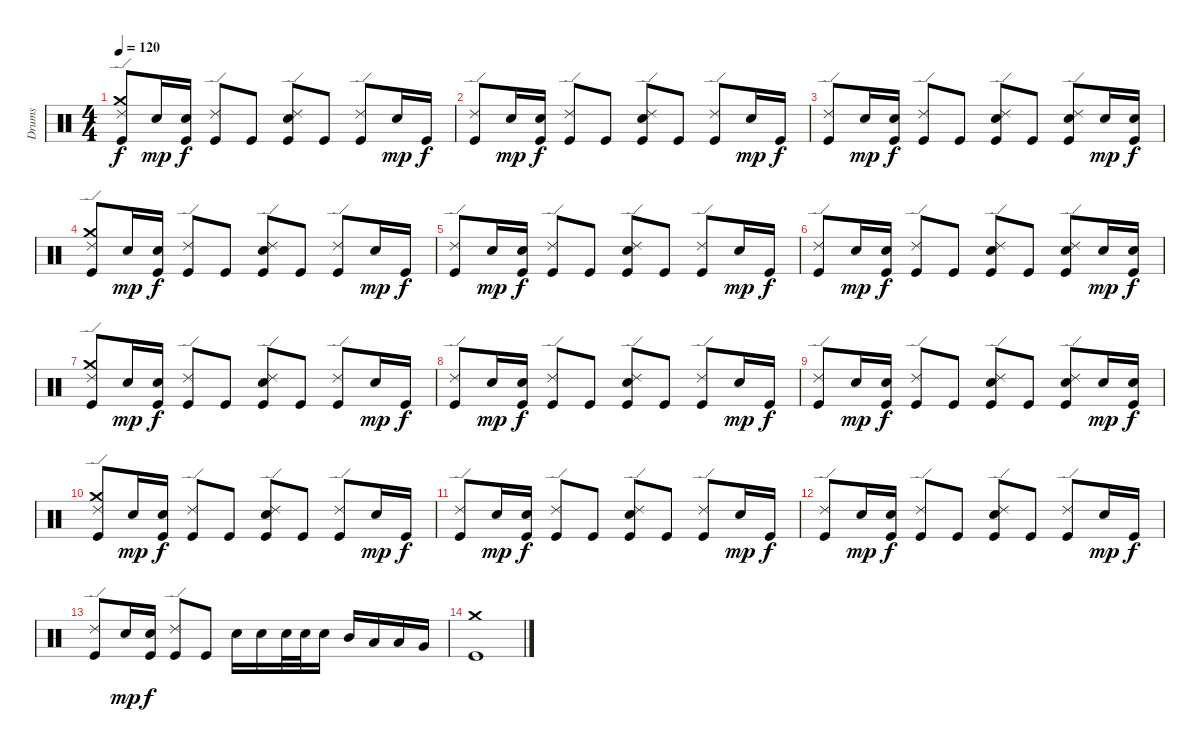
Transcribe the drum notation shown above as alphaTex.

\track ("Drums" "Drums") {instrument percussion}
\staff {score}
\articulation defaults
\ts (4 4)
\tempo 120
\clef neutral
\ks c
("Kick (hit)" "Crash medium (hit)" "Ride (edge) 2").8{dy f} "Electric Snare (hit)".16{dy mp} ("Kick (hit)" "Electric Snare (hit)").16{dy f} ("Kick (hit)" "Ride (edge) 2").8 "Kick (hit)".8 ("Kick (hit)" "Electric Snare (hit)" "Ride (edge) 2").8 "Kick (hit)".8 ("Kick (hit)" "Ride (edge) 2").8 "Electric Snare (hit)".16{dy mp} "Kick (hit)".16{dy f} |
("Kick (hit)" "Ride (edge) 2").8 "Electric Snare (hit)".16{dy mp} ("Kick (hit)" "Electric Snare (hit)").16{dy f} ("Kick (hit)" "Ride (edge) 2").8 "Kick (hit)".8 ("Kick (hit)" "Electric Snare (hit)" "Ride (edge) 2").8 "Kick (hit)".8 ("Kick (hit)" "Ride (edge) 2").8 "Electric Snare (hit)".16{dy mp} "Kick (hit)".16{dy f} |
("Kick (hit)" "Ride (edge) 2").8 "Electric Snare (hit)".16{dy mp} ("Kick (hit)" "Electric Snare (hit)").16{dy f} ("Kick (hit)" "Ride (edge) 2").8 "Kick (hit)".8 ("Kick (hit)" "Electric Snare (hit)" "Ride (edge) 2").8 "Kick (hit)".8 ("Kick (hit)" "Electric Snare (hit)" "Ride (edge) 2").8 "Electric Snare (hit)".16{dy mp} ("Kick (hit)" "Electric Snare (hit)").16{dy f} |
("Kick (hit)" "Crash medium (hit)" "Ride (edge) 2").8 "Electric Snare (hit)".16{dy mp} ("Kick (hit)" "Electric Snare (hit)").16{dy f} ("Kick (hit)" "Ride (edge) 2").8 "Kick (hit)".8 ("Kick (hit)" "Electric Snare (hit)" "Ride (edge) 2").8 "Kick (hit)".8 ("Kick (hit)" "Ride (edge) 2").8 "Electric Snare (hit)".16{dy mp} "Kick (hit)".16{dy f} |
("Kick (hit)" "Ride (edge) 2").8 "Electric Snare (hit)".16{dy mp} ("Kick (hit)" "Electric Snare (hit)").16{dy f} ("Kick (hit)" "Ride (edge) 2").8 "Kick (hit)".8 ("Kick (hit)" "Electric Snare (hit)" "Ride (edge) 2").8 "Kick (hit)".8 ("Kick (hit)" "Ride (edge) 2").8 "Electric Snare (hit)".16{dy mp} "Kick (hit)".16{dy f} |
("Kick (hit)" "Ride (edge) 2").8 "Electric Snare (hit)".16{dy mp} ("Kick (hit)" "Electric Snare (hit)").16{dy f} ("Kick (hit)" "Ride (edge) 2").8 "Kick (hit)".8 ("Kick (hit)" "Electric Snare (hit)" "Ride (edge) 2").8 "Kick (hit)".8 ("Kick (hit)" "Electric Snare (hit)" "Ride (edge) 2").8 "Electric Snare (hit)".16{dy mp} ("Kick (hit)" "Electric Snare (hit)").16{dy f} |
("Kick (hit)" "Crash medium (hit)" "Ride (edge) 2").8 "Electric Snare (hit)".16{dy mp} ("Kick (hit)" "Electric Snare (hit)").16{dy f} ("Kick (hit)" "Ride (edge) 2").8 "Kick (hit)".8 ("Kick (hit)" "Electric Snare (hit)" "Ride (edge) 2").8 "Kick (hit)".8 ("Kick (hit)" "Ride (edge) 2").8 "Electric Snare (hit)".16{dy mp} "Kick (hit)".16{dy f} |
("Kick (hit)" "Ride (edge) 2").8 "Electric Snare (hit)".16{dy mp} ("Kick (hit)" "Electric Snare (hit)").16{dy f} ("Kick (hit)" "Ride (edge) 2").8 "Kick (hit)".8 ("Kick (hit)" "Electric Snare (hit)" "Ride (edge) 2").8 "Kick (hit)".8 ("Kick (hit)" "Ride (edge) 2").8 "Electric Snare (hit)".16{dy mp} "Kick (hit)".16{dy f} |
("Kick (hit)" "Ride (edge) 2").8 "Electric Snare (hit)".16{dy mp} ("Kick (hit)" "Electric Snare (hit)").16{dy f} ("Kick (hit)" "Ride (edge) 2").8 "Kick (hit)".8 ("Kick (hit)" "Electric Snare (hit)" "Ride (edge) 2").8 "Kick (hit)".8 ("Kick (hit)" "Electric Snare (hit)" "Ride (edge) 2").8 "Electric Snare (hit)".16{dy mp} ("Kick (hit)" "Electric Snare (hit)").16{dy f} |
("Kick (hit)" "Crash medium (hit)" "Ride (edge) 2").8 "Electric Snare (hit)".16{dy mp} ("Kick (hit)" "Electric Snare (hit)").16{dy f} ("Kick (hit)" "Ride (edge) 2").8 "Kick (hit)".8 ("Kick (hit)" "Electric Snare (hit)" "Ride (edge) 2").8 "Kick (hit)".8 ("Kick (hit)" "Ride (edge) 2").8 "Electric Snare (hit)".16{dy mp} "Kick (hit)".16{dy f} |
("Kick (hit)" "Ride (edge) 2").8 "Electric Snare (hit)".16{dy mp} ("Kick (hit)" "Electric Snare (hit)").16{dy f} ("Kick (hit)" "Ride (edge) 2").8 "Kick (hit)".8 ("Kick (hit)" "Electric Snare (hit)" "Ride (edge) 2").8 "Kick (hit)".8 ("Kick (hit)" "Ride (edge) 2").8 "Electric Snare (hit)".16{dy mp} "Kick (hit)".16{dy f} |
("Kick (hit)" "Ride (edge) 2").8 "Electric Snare (hit)".16{dy mp} ("Kick (hit)" "Electric Snare (hit)").16{dy f} ("Kick (hit)" "Ride (edge) 2").8 "Kick (hit)".8 ("Kick (hit)" "Electric Snare (hit)" "Ride (edge) 2").8 "Kick (hit)".8 ("Kick (hit)" "Ride (edge) 2").8 "Electric Snare (hit)".16{dy mp} "Kick (hit)".16{dy f} |
("Kick (hit)" "Ride (edge) 2").8 "Electric Snare (hit)".16{dy mp} ("Kick (hit)" "Electric Snare (hit)").16{dy f} ("Kick (hit)" "Ride (edge) 2").8 "Kick (hit)".8 "Electric Snare (hit)".16 "Electric Snare (hit)".16 "Electric Snare (hit)".32 "Electric Snare (hit)".32 "Electric Snare (hit)".16 "Mid Tom (hit)".16 "Low Tom (hit)".16 "Low Tom (hit)".16 "Very Low Tom (hit)".16 |
("Kick (hit)" "Crash medium (hit)").1
